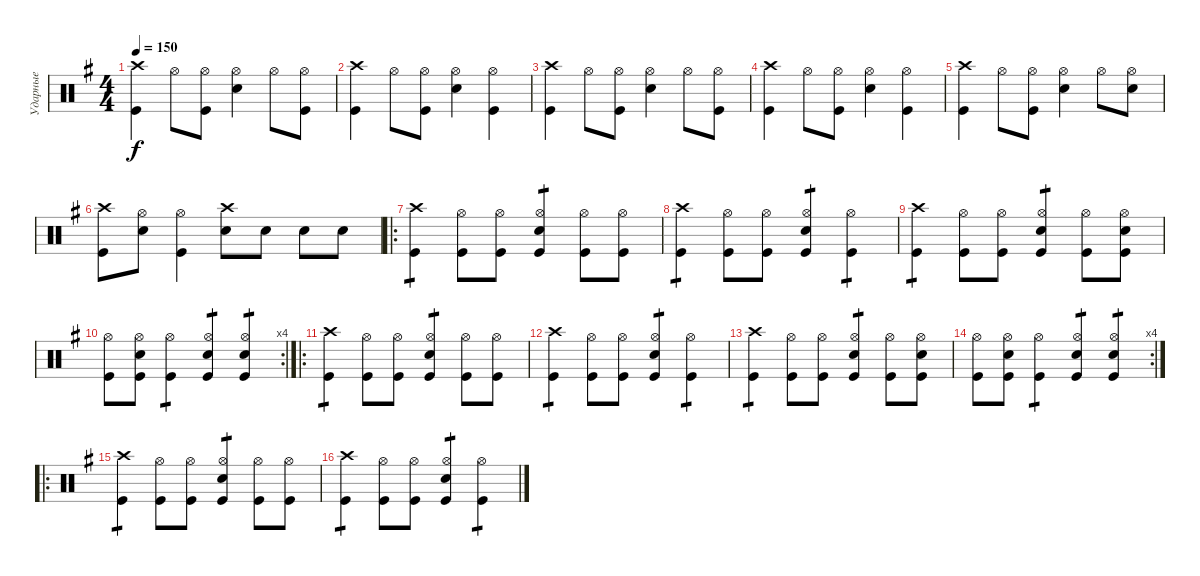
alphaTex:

\track ("Ударные" "Ударные") {instrument percussion}
\staff {score}
\articulation defaults
\ts (4 4)
\tempo 150
\clef neutral
\ks g
("Crash high (hit)" "Kick (hit)").4{dy f} "Hi-Hat (open)".8 ("Hi-Hat (open)" "Kick (hit)").8 ("Hi-Hat (open)" "Snare (hit) 2").4 "Hi-Hat (open)".8 ("Hi-Hat (open)" "Kick (hit)").8 |
("Crash high (hit)" "Kick (hit)").4 "Hi-Hat (open)".8 ("Hi-Hat (open)" "Kick (hit)").8 ("Hi-Hat (open)" "Snare (hit) 2").4 ("Hi-Hat (open)" "Kick (hit)").4 |
("Crash high (hit)" "Kick (hit)").4 "Hi-Hat (open)".8 ("Hi-Hat (open)" "Kick (hit)").8 ("Hi-Hat (open)" "Snare (hit) 2").4 "Hi-Hat (open)".8 ("Hi-Hat (open)" "Kick (hit)").8 |
("Crash high (hit)" "Kick (hit)").4 "Hi-Hat (open)".8 ("Hi-Hat (open)" "Kick (hit)").8 ("Hi-Hat (open)" "Snare (hit) 2").4 ("Hi-Hat (open)" "Kick (hit)").4 |
("Crash high (hit)" "Kick (hit)").4 "Hi-Hat (open)".8 ("Hi-Hat (open)" "Kick (hit)").8 ("Hi-Hat (open)" "Snare (hit) 2").4 "Hi-Hat (open)".8 ("Hi-Hat (open)" "Snare (hit) 2").8 |
("Crash high (hit)" "Kick (hit)").8 ("Hi-Hat (open)" "Snare (hit) 2").8 ("Hi-Hat (open)" "Kick (hit)").4 ("Crash high (hit)" "Snare (hit) 2").8 "Snare (hit) 2".8 "Snare (hit) 2".8 "Snare (hit) 2".8 |
\ro
("Crash high (hit)" "Kick (hit)").4{tp 1} ("Hi-Hat (open)" "Kick (hit)").8 ("Hi-Hat (open)" "Kick (hit)").8 ("Hi-Hat (open)" "Snare (hit) 2" "Kick (hit)").4{tp 1} ("Hi-Hat (open)" "Kick (hit)").8 ("Hi-Hat (open)" "Kick (hit)").8 |
("Crash high (hit)" "Kick (hit)").4{tp 1} ("Hi-Hat (open)" "Kick (hit)").8 ("Hi-Hat (open)" "Kick (hit)").8 ("Hi-Hat (open)" "Snare (hit) 2" "Kick (hit)").4{tp 1} ("Hi-Hat (open)" "Kick (hit)").4{tp 1} |
("Crash high (hit)" "Kick (hit)").4{tp 1} ("Hi-Hat (open)" "Kick (hit)").8 ("Hi-Hat (open)" "Kick (hit)").8 ("Hi-Hat (open)" "Snare (hit) 2" "Kick (hit)").4{tp 1} ("Hi-Hat (open)" "Kick (hit)").8 ("Hi-Hat (open)" "Snare (hit) 2" "Kick (hit)").8 |
\rc 4
("Hi-Hat (open)" "Kick (hit)").8 ("Hi-Hat (open)" "Snare (hit) 2" "Kick (hit)").8 ("Hi-Hat (open)" "Kick (hit)").4{tp 1} ("Hi-Hat (open)" "Snare (hit) 2" "Kick (hit)").4{tp 1} ("Hi-Hat (open)" "Snare (hit) 2" "Kick (hit)").4{tp 1} |
\ro
("Crash high (hit)" "Kick (hit)").4{tp 1} ("Hi-Hat (open)" "Kick (hit)").8 ("Hi-Hat (open)" "Kick (hit)").8 ("Hi-Hat (open)" "Snare (hit) 2" "Kick (hit)").4{tp 1} ("Hi-Hat (open)" "Kick (hit)").8 ("Hi-Hat (open)" "Kick (hit)").8 |
("Crash high (hit)" "Kick (hit)").4{tp 1} ("Hi-Hat (open)" "Kick (hit)").8 ("Hi-Hat (open)" "Kick (hit)").8 ("Hi-Hat (open)" "Snare (hit) 2" "Kick (hit)").4{tp 1} ("Hi-Hat (open)" "Kick (hit)").4{tp 1} |
("Crash high (hit)" "Kick (hit)").4{tp 1} ("Hi-Hat (open)" "Kick (hit)").8 ("Hi-Hat (open)" "Kick (hit)").8 ("Hi-Hat (open)" "Snare (hit) 2" "Kick (hit)").4{tp 1} ("Hi-Hat (open)" "Kick (hit)").8 ("Hi-Hat (open)" "Snare (hit) 2" "Kick (hit)").8 |
\rc 4
("Hi-Hat (open)" "Kick (hit)").8 ("Hi-Hat (open)" "Snare (hit) 2" "Kick (hit)").8 ("Hi-Hat (open)" "Kick (hit)").4{tp 1} ("Hi-Hat (open)" "Snare (hit) 2" "Kick (hit)").4{tp 1} ("Hi-Hat (open)" "Snare (hit) 2" "Kick (hit)").4{tp 1} |
\ro
("Crash high (hit)" "Kick (hit)").4{tp 1} ("Hi-Hat (open)" "Kick (hit)").8 ("Hi-Hat (open)" "Kick (hit)").8 ("Hi-Hat (open)" "Snare (hit) 2" "Kick (hit)").4{tp 1} ("Hi-Hat (open)" "Kick (hit)").8 ("Hi-Hat (open)" "Kick (hit)").8 |
("Crash high (hit)" "Kick (hit)").4{tp 1} ("Hi-Hat (open)" "Kick (hit)").8 ("Hi-Hat (open)" "Kick (hit)").8 ("Hi-Hat (open)" "Snare (hit) 2" "Kick (hit)").4{tp 1} ("Hi-Hat (open)" "Kick (hit)").4{tp 1}
